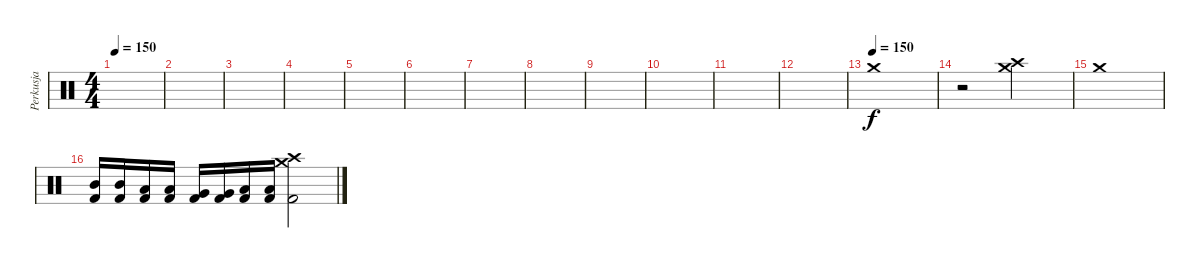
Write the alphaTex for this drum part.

\track ("Perkusja" "Perkusja") {instrument percussion}
\staff {score}
\articulation defaults
\ts (4 4)
\tempo 150
\clef neutral
\ks c
|
|
|
|
|
|
|
|
|
|
|
|
\tempo (150)
"Crash medium (hit)".1 |
r.2 ("Crash high (hit)" "Crash medium (hit)").2 |
"Crash medium (hit)".1 |
("Mid Tom (hit)" "Kick (hit) 2").16 ("Mid Tom (hit)" "Kick (hit) 2").16 ("Low Tom (hit)" "Kick (hit) 2").16 ("Low Tom (hit)" "Kick (hit) 2").16 ("Very Low Tom (hit)" "Kick (hit) 2").16 ("Very Low Tom (hit)" "Kick (hit) 2").16 ("Low Floor Tom (hit)" "Kick (hit) 2").16 ("Low Floor Tom (hit)" "Kick (hit) 2").16 ("Crash high (hit)" "Crash medium (hit)" "Kick (hit) 2").2
